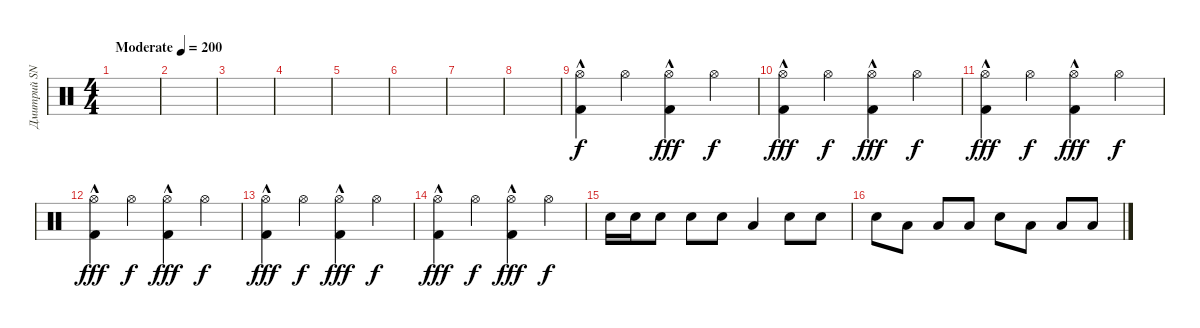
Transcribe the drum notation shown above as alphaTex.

\track ("Дмитрий SNAKE Хакимов" "Дмитрий SN") {instrument percussion}
\staff {score}
\articulation defaults
\ts (4 4)
\tempo (200 "Moderate")
\clef neutral
\ks c
|
|
|
|
|
|
|
|
("Hi-Hat (open)"{hac} "Kick (hit) 2"{hac}).4 "Hi-Hat (open)".4{dy f} ("Hi-Hat (open)"{hac} "Kick (hit) 2"{hac}).4{dy fff} "Hi-Hat (open)".4{dy f} |
("Hi-Hat (open)"{hac} "Kick (hit) 2"{hac}).4{dy fff} "Hi-Hat (open)".4{dy f} ("Hi-Hat (open)"{hac} "Kick (hit) 2"{hac}).4{dy fff} "Hi-Hat (open)".4{dy f} |
("Hi-Hat (open)"{hac} "Kick (hit) 2"{hac}).4{dy fff} "Hi-Hat (open)".4{dy f} ("Hi-Hat (open)"{hac} "Kick (hit) 2"{hac}).4{dy fff} "Hi-Hat (open)".4{dy f} |
("Hi-Hat (open)"{hac} "Kick (hit) 2"{hac}).4{dy fff} "Hi-Hat (open)".4{dy f} ("Hi-Hat (open)"{hac} "Kick (hit) 2"{hac}).4{dy fff} "Hi-Hat (open)".4{dy f} |
("Hi-Hat (open)"{hac} "Kick (hit) 2"{hac}).4{dy fff} "Hi-Hat (open)".4{dy f} ("Hi-Hat (open)"{hac} "Kick (hit) 2"{hac}).4{dy fff} "Hi-Hat (open)".4{dy f} |
("Hi-Hat (open)"{hac} "Kick (hit) 2"{hac}).4{dy fff} "Hi-Hat (open)".4{dy f} ("Hi-Hat (open)"{hac} "Kick (hit) 2"{hac}).4{dy fff} "Hi-Hat (open)".4{dy f} |
"Snare (hit) 2".16 "Snare (hit) 2".16 "Snare (hit) 2".8 "Snare (hit) 2".8 "Snare (hit) 2".8 "Low Tom (hit)".4 "Snare (hit) 2".8 "Snare (hit) 2".8 |
"Snare (hit) 2".8 "Low Tom (hit)".8 "Low Tom (hit)".8 "Low Tom (hit)".8 "Snare (hit) 2".8 "Low Tom (hit)".8 "Low Tom (hit)".8 "Low Tom (hit)".8
